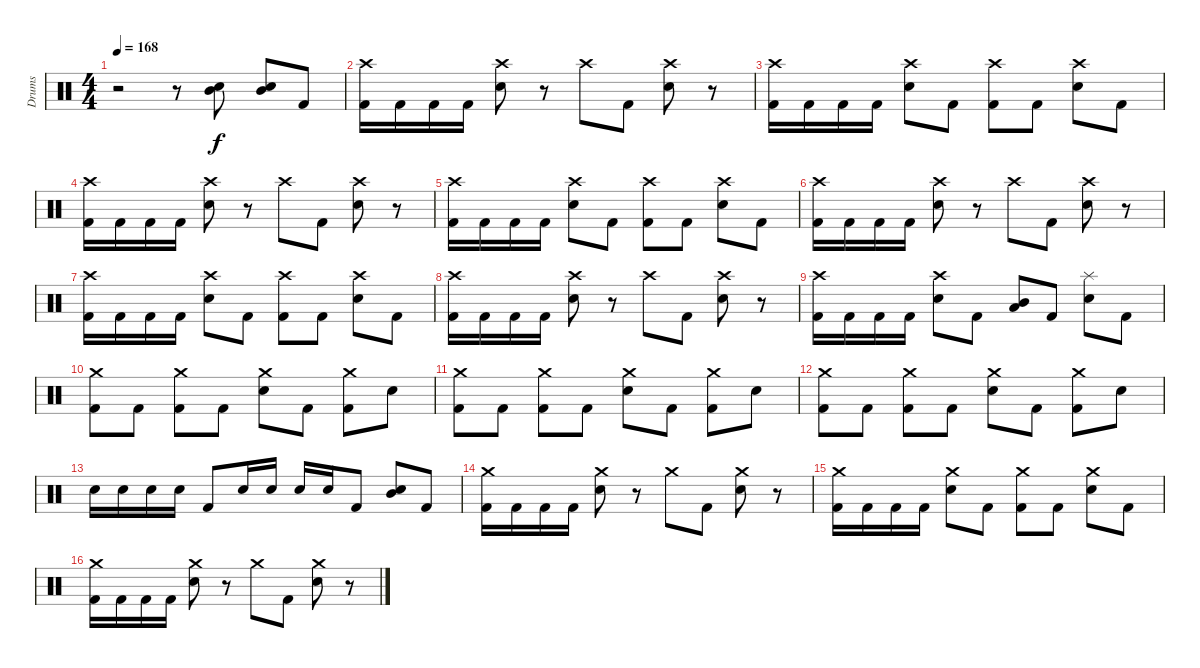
\track ("Drums" "Drums") {instrument percussion}
\staff {score}
\articulation defaults
\ts (4 4)
\tempo 168
\clef neutral
\ks c
r.2{dy f} r.8 ("Mid Tom (hit)" "Electric Snare (hit)").8 ("Mid Tom (hit)" "Electric Snare (hit)").8 "Kick (hit) 2".8 |
("Crash high (hit)" "Kick (hit) 2").16 "Kick (hit) 2".16 "Kick (hit) 2".16 "Kick (hit) 2".16 ("Crash high (hit)" "Electric Snare (hit)").8 r.8 "Crash high (hit)".8 "Kick (hit) 2".8 ("Crash high (hit)" "Electric Snare (hit)").8 r.8 |
("Crash high (hit)" "Kick (hit) 2").16 "Kick (hit) 2".16 "Kick (hit) 2".16 "Kick (hit) 2".16 ("Crash high (hit)" "Electric Snare (hit)").8 "Kick (hit) 2".8 ("Crash high (hit)" "Kick (hit) 2").8 "Kick (hit) 2".8 ("Crash high (hit)" "Electric Snare (hit)").8 "Kick (hit) 2".8 |
("Crash high (hit)" "Kick (hit) 2").16 "Kick (hit) 2".16 "Kick (hit) 2".16 "Kick (hit) 2".16 ("Crash high (hit)" "Electric Snare (hit)").8 r.8 "Crash high (hit)".8 "Kick (hit) 2".8 ("Crash high (hit)" "Electric Snare (hit)").8 r.8 |
("Crash high (hit)" "Kick (hit) 2").16 "Kick (hit) 2".16 "Kick (hit) 2".16 "Kick (hit) 2".16 ("Crash high (hit)" "Electric Snare (hit)").8 "Kick (hit) 2".8 ("Crash high (hit)" "Kick (hit) 2").8 "Kick (hit) 2".8 ("Crash high (hit)" "Electric Snare (hit)").8 "Kick (hit) 2".8 |
("Crash high (hit)" "Kick (hit) 2").16 "Kick (hit) 2".16 "Kick (hit) 2".16 "Kick (hit) 2".16 ("Crash high (hit)" "Electric Snare (hit)").8 r.8 "Crash high (hit)".8 "Kick (hit) 2".8 ("Crash high (hit)" "Electric Snare (hit)").8 r.8 |
("Crash high (hit)" "Kick (hit) 2").16 "Kick (hit) 2".16 "Kick (hit) 2".16 "Kick (hit) 2".16 ("Crash high (hit)" "Electric Snare (hit)").8 "Kick (hit) 2".8 ("Crash high (hit)" "Kick (hit) 2").8 "Kick (hit) 2".8 ("Crash high (hit)" "Electric Snare (hit)").8 "Kick (hit) 2".8 |
("Crash high (hit)" "Kick (hit) 2").16 "Kick (hit) 2".16 "Kick (hit) 2".16 "Kick (hit) 2".16 ("Crash high (hit)" "Electric Snare (hit)").8 r.8 "Crash high (hit)".8 "Kick (hit) 2".8 ("Crash high (hit)" "Electric Snare (hit)").8 r.8 |
("Crash high (hit)" "Kick (hit) 2").16 "Kick (hit) 2".16 "Kick (hit) 2".16 "Kick (hit) 2".16 ("Crash high (hit)" "Electric Snare (hit)").8 "Kick (hit) 2".8 ("Mid Tom (hit)" "Low Tom (hit)").8 "Kick (hit) 2".8 ("Splash (hit)" "Electric Snare (hit)").8 "Kick (hit) 2".8 |
("Crash medium (hit)" "Kick (hit) 2").8 "Kick (hit) 2".8 ("Crash medium (hit)" "Kick (hit) 2").8 "Kick (hit) 2".8 ("Crash medium (hit)" "Electric Snare (hit)").8 "Kick (hit) 2".8 ("Crash medium (hit)" "Kick (hit) 2").8 "Electric Snare (hit)".8 |
("Crash medium (hit)" "Kick (hit) 2").8 "Kick (hit) 2".8 ("Crash medium (hit)" "Kick (hit) 2").8 "Kick (hit) 2".8 ("Crash medium (hit)" "Electric Snare (hit)").8 "Kick (hit) 2".8 ("Crash medium (hit)" "Kick (hit) 2").8 "Electric Snare (hit)".8 |
("Crash medium (hit)" "Kick (hit) 2").8 "Kick (hit) 2".8 ("Crash medium (hit)" "Kick (hit) 2").8 "Kick (hit) 2".8 ("Crash medium (hit)" "Electric Snare (hit)").8 "Kick (hit) 2".8 ("Crash medium (hit)" "Kick (hit) 2").8 "Electric Snare (hit)".8 |
"Electric Snare (hit)".16 "Electric Snare (hit)".16 "Electric Snare (hit)".16 "Electric Snare (hit)".16 "Kick (hit) 2".8 "Electric Snare (hit)".16 "Electric Snare (hit)".16 "Electric Snare (hit)".16 "Electric Snare (hit)".16 "Kick (hit) 2".8 ("Mid Tom (hit)" "Electric Snare (hit)").8 "Kick (hit) 2".8 |
("Crash medium (hit)" "Kick (hit) 2").16 "Kick (hit) 2".16 "Kick (hit) 2".16 "Kick (hit) 2".16 ("Crash medium (hit)" "Electric Snare (hit)").8 r.8 "Crash medium (hit)".8 "Kick (hit) 2".8 ("Crash medium (hit)" "Electric Snare (hit)").8 r.8 |
("Crash medium (hit)" "Kick (hit) 2").16 "Kick (hit) 2".16 "Kick (hit) 2".16 "Kick (hit) 2".16 ("Crash medium (hit)" "Electric Snare (hit)").8 "Kick (hit) 2".8 ("Crash medium (hit)" "Kick (hit) 2").8 "Kick (hit) 2".8 ("Crash medium (hit)" "Electric Snare (hit)").8 "Kick (hit) 2".8 |
("Crash medium (hit)" "Kick (hit) 2").16 "Kick (hit) 2".16 "Kick (hit) 2".16 "Kick (hit) 2".16 ("Crash medium (hit)" "Electric Snare (hit)").8 r.8 "Crash medium (hit)".8 "Kick (hit) 2".8 ("Crash medium (hit)" "Electric Snare (hit)").8 r.8
